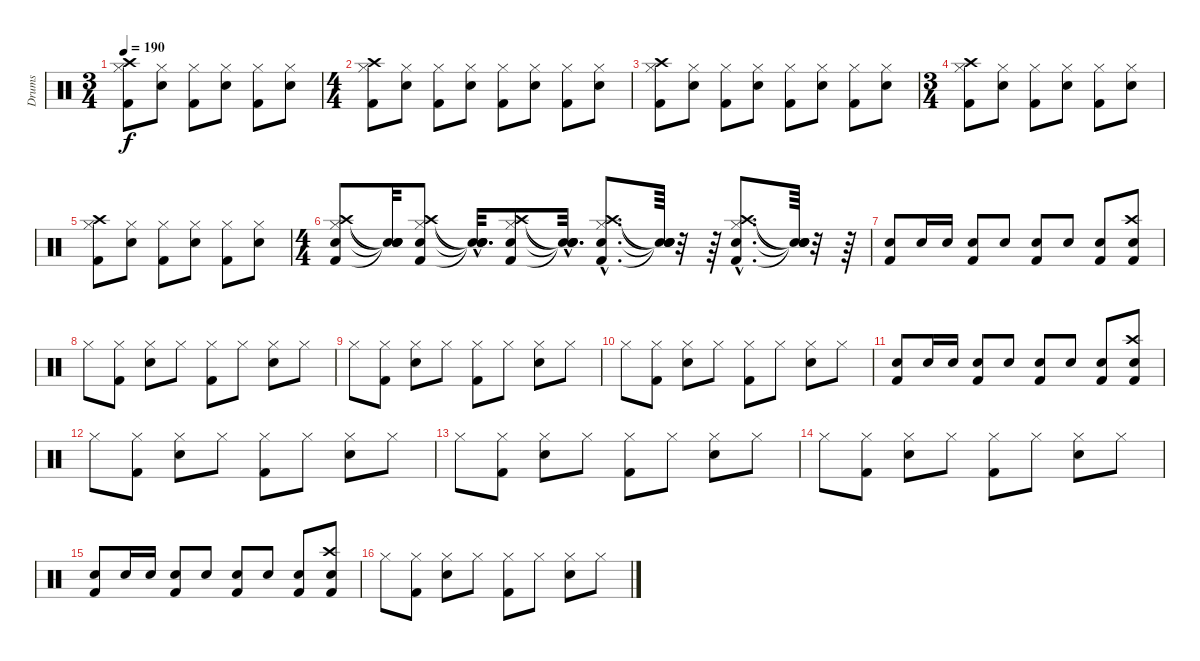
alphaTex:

\track ("Drums" "Drums") {instrument percussion}
\staff {score}
\articulation defaults
\ts (3 4)
\tempo 190
\clef neutral
\ks c
("Kick (hit) 2" "Hi-Hat (closed)" "Crash high (hit)").8{dy f} ("Snare (hit) 2" "Hi-Hat (closed)").8 ("Kick (hit) 2" "Hi-Hat (closed)").8 ("Snare (hit) 2" "Hi-Hat (closed)").8 ("Kick (hit) 2" "Hi-Hat (closed)").8 ("Snare (hit) 2" "Hi-Hat (closed)").8 |
\ts (4 4)
("Kick (hit) 2" "Hi-Hat (closed)" "Crash high (hit)").8 ("Snare (hit) 2" "Hi-Hat (closed)").8 ("Kick (hit) 2" "Hi-Hat (closed)").8 ("Snare (hit) 2" "Hi-Hat (closed)").8 ("Kick (hit) 2" "Hi-Hat (closed)").8 ("Snare (hit) 2" "Hi-Hat (closed)").8 ("Kick (hit) 2" "Hi-Hat (closed)").8 ("Snare (hit) 2" "Hi-Hat (closed)").8 |
("Kick (hit) 2" "Hi-Hat (closed)" "Crash high (hit)").8 ("Snare (hit) 2" "Hi-Hat (closed)").8 ("Kick (hit) 2" "Hi-Hat (closed)").8 ("Snare (hit) 2" "Hi-Hat (closed)").8 ("Kick (hit) 2" "Hi-Hat (closed)").8 ("Snare (hit) 2" "Hi-Hat (closed)").8 ("Kick (hit) 2" "Hi-Hat (closed)").8 ("Snare (hit) 2" "Hi-Hat (closed)").8 |
\ts (3 4)
("Kick (hit) 2" "Hi-Hat (closed)" "Crash high (hit)").8 ("Snare (hit) 2" "Hi-Hat (closed)").8 ("Kick (hit) 2" "Hi-Hat (closed)").8 ("Snare (hit) 2" "Hi-Hat (closed)").8 ("Kick (hit) 2" "Hi-Hat (closed)").8 ("Snare (hit) 2" "Hi-Hat (closed)").8 |
("Kick (hit) 2" "Hi-Hat (closed)" "Crash high (hit)").8 ("Snare (hit) 2" "Hi-Hat (closed)").8 ("Kick (hit) 2" "Hi-Hat (closed)").8 ("Snare (hit) 2" "Hi-Hat (closed)").8 ("Kick (hit) 2" "Hi-Hat (closed)").8 ("Snare (hit) 2" "Hi-Hat (closed)").8 |
\ts (4 4)
("Kick (hit) 2" "Snare (hit) 2" "Hi-Hat (closed)" "Crash high (hit)").8 ("Snare (hit)"{t} "Snare (hit)"{t} "Snare (hit)"{t} "Snare (hit)"{t}).32 ("Kick (hit) 2" "Snare (hit) 2" "Hi-Hat (closed)" "Crash high (hit)").8 ("Snare (hit)"{hac t} "Snare (hit)"{hac t} "Snare (hit)"{hac t} "Snare (hit)"{hac t}).32{d} ("Kick (hit) 2" "Snare (hit) 2" "Hi-Hat (closed)" "Crash high (hit)").8 ("Snare (hit)"{hac t} "Snare (hit)"{hac t} "Snare (hit)"{hac t} "Snare (hit)"{hac t}).32{d} ("Kick (hit) 2"{hac} "Snare (hit) 2"{hac} "Hi-Hat (closed)"{hac} "Crash high (hit)"{hac}).8{d} ("Snare (hit)"{t} "Snare (hit)"{t} "Snare (hit)"{t} "Snare (hit)"{t}).64 r.32 r.64 ("Kick (hit) 2"{hac} "Snare (hit) 2"{hac} "Hi-Hat (closed)"{hac} "Crash high (hit)"{hac}).8{d} ("Snare (hit)"{t} "Snare (hit)"{t} "Snare (hit)"{t} "Snare (hit)"{t}).64 r.32 r.64 |
("Kick (hit) 2" "Snare (hit) 2").8 "Snare (hit) 2".16 "Snare (hit) 2".16 ("Kick (hit) 2" "Snare (hit) 2").8 "Snare (hit) 2".8 ("Kick (hit) 2" "Snare (hit) 2").8 "Snare (hit) 2".8 ("Kick (hit) 2" "Snare (hit) 2").8 ("Kick (hit) 2" "Snare (hit) 2" "Crash high (hit)").8 |
"Hi-Hat (closed)".8 ("Kick (hit) 2" "Hi-Hat (closed)").8 ("Snare (hit) 2" "Hi-Hat (closed)").8 "Hi-Hat (closed)".8 ("Kick (hit) 2" "Hi-Hat (closed)").8 "Hi-Hat (closed)".8 ("Snare (hit) 2" "Hi-Hat (closed)").8 "Hi-Hat (closed)".8 |
"Hi-Hat (closed)".8 ("Kick (hit) 2" "Hi-Hat (closed)").8 ("Snare (hit) 2" "Hi-Hat (closed)").8 "Hi-Hat (closed)".8 ("Kick (hit) 2" "Hi-Hat (closed)").8 "Hi-Hat (closed)".8 ("Snare (hit) 2" "Hi-Hat (closed)").8 "Hi-Hat (closed)".8 |
"Hi-Hat (closed)".8 ("Kick (hit) 2" "Hi-Hat (closed)").8 ("Snare (hit) 2" "Hi-Hat (closed)").8 "Hi-Hat (closed)".8 ("Kick (hit) 2" "Hi-Hat (closed)").8 "Hi-Hat (closed)".8 ("Snare (hit) 2" "Hi-Hat (closed)").8 "Hi-Hat (closed)".8 |
("Kick (hit) 2" "Snare (hit) 2").8 "Snare (hit) 2".16 "Snare (hit) 2".16 ("Kick (hit) 2" "Snare (hit) 2").8 "Snare (hit) 2".8 ("Kick (hit) 2" "Snare (hit) 2").8 "Snare (hit) 2".8 ("Kick (hit) 2" "Snare (hit) 2").8 ("Kick (hit) 2" "Snare (hit) 2" "Crash high (hit)").8 |
"Hi-Hat (closed)".8 ("Kick (hit) 2" "Hi-Hat (closed)").8 ("Snare (hit) 2" "Hi-Hat (closed)").8 "Hi-Hat (closed)".8 ("Kick (hit) 2" "Hi-Hat (closed)").8 "Hi-Hat (closed)".8 ("Snare (hit) 2" "Hi-Hat (closed)").8 "Hi-Hat (closed)".8 |
"Hi-Hat (closed)".8 ("Kick (hit) 2" "Hi-Hat (closed)").8 ("Snare (hit) 2" "Hi-Hat (closed)").8 "Hi-Hat (closed)".8 ("Kick (hit) 2" "Hi-Hat (closed)").8 "Hi-Hat (closed)".8 ("Snare (hit) 2" "Hi-Hat (closed)").8 "Hi-Hat (closed)".8 |
"Hi-Hat (closed)".8 ("Kick (hit) 2" "Hi-Hat (closed)").8 ("Snare (hit) 2" "Hi-Hat (closed)").8 "Hi-Hat (closed)".8 ("Kick (hit) 2" "Hi-Hat (closed)").8 "Hi-Hat (closed)".8 ("Snare (hit) 2" "Hi-Hat (closed)").8 "Hi-Hat (closed)".8 |
("Kick (hit) 2" "Snare (hit) 2").8 "Snare (hit) 2".16 "Snare (hit) 2".16 ("Kick (hit) 2" "Snare (hit) 2").8 "Snare (hit) 2".8 ("Kick (hit) 2" "Snare (hit) 2").8 "Snare (hit) 2".8 ("Kick (hit) 2" "Snare (hit) 2").8 ("Kick (hit) 2" "Snare (hit) 2" "Crash high (hit)").8 |
"Hi-Hat (closed)".8 ("Kick (hit) 2" "Hi-Hat (closed)").8 ("Snare (hit) 2" "Hi-Hat (closed)").8 "Hi-Hat (closed)".8 ("Kick (hit) 2" "Hi-Hat (closed)").8 "Hi-Hat (closed)".8 ("Snare (hit) 2" "Hi-Hat (closed)").8 "Hi-Hat (closed)".8
